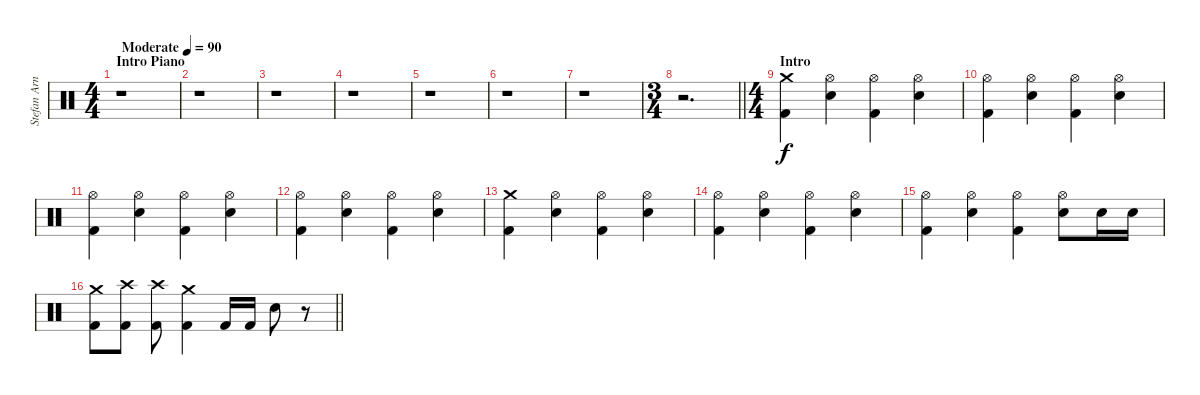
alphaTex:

\track ("Stefan Arnold" "Stefan Arn") {instrument percussion}
\staff {score}
\articulation defaults
\ts (4 4)
\section ("" "Intro Piano")
\tempo (90 "Moderate")
\clef neutral
\ks c
r.1{dy f} |
r.1 |
r.1 |
r.1 |
r.1 |
r.1 |
r.1 |
\ts (3 4)
\barLineRight lightlight
r.2{d} |
\ts (4 4)
\section ("" "Intro")
("Crash medium (hit)" "Kick (hit) 2").4 ("Hi-Hat (open)" "Electric Snare (hit)").4 ("Hi-Hat (open)" "Kick (hit) 2").4 ("Hi-Hat (open)" "Electric Snare (hit)").4 |
("Hi-Hat (open)" "Kick (hit) 2").4 ("Hi-Hat (open)" "Electric Snare (hit)").4 ("Hi-Hat (open)" "Kick (hit) 2").4 ("Hi-Hat (open)" "Electric Snare (hit)").4 |
("Hi-Hat (open)" "Kick (hit) 2").4 ("Hi-Hat (open)" "Electric Snare (hit)").4 ("Hi-Hat (open)" "Kick (hit) 2").4 ("Hi-Hat (open)" "Electric Snare (hit)").4 |
("Hi-Hat (open)" "Kick (hit) 2").4 ("Hi-Hat (open)" "Electric Snare (hit)").4 ("Hi-Hat (open)" "Kick (hit) 2").4 ("Hi-Hat (open)" "Electric Snare (hit)").4 |
("Crash medium (hit)" "Kick (hit) 2").4 ("Hi-Hat (open)" "Electric Snare (hit)").4 ("Hi-Hat (open)" "Kick (hit) 2").4 ("Hi-Hat (open)" "Electric Snare (hit)").4 |
("Hi-Hat (open)" "Kick (hit) 2").4 ("Hi-Hat (open)" "Electric Snare (hit)").4 ("Hi-Hat (open)" "Kick (hit) 2").4 ("Hi-Hat (open)" "Electric Snare (hit)").4 |
("Hi-Hat (open)" "Kick (hit) 2").4 ("Hi-Hat (open)" "Electric Snare (hit)").4 ("Hi-Hat (open)" "Kick (hit) 2").4 ("Hi-Hat (open)" "Electric Snare (hit)").8 "Electric Snare (hit)".16 "Electric Snare (hit)".16 |
\barLineRight lightlight
("Crash medium (hit)" "Kick (hit) 2").8 ("Crash high (hit)" "Kick (hit) 2").8 ("Crash high (hit)" "Kick (hit) 2").8 ("Crash medium (hit)" "Kick (hit) 2").4 "Kick (hit) 2".16 "Kick (hit) 2".16 "Electric Snare (hit)".8 r.8
